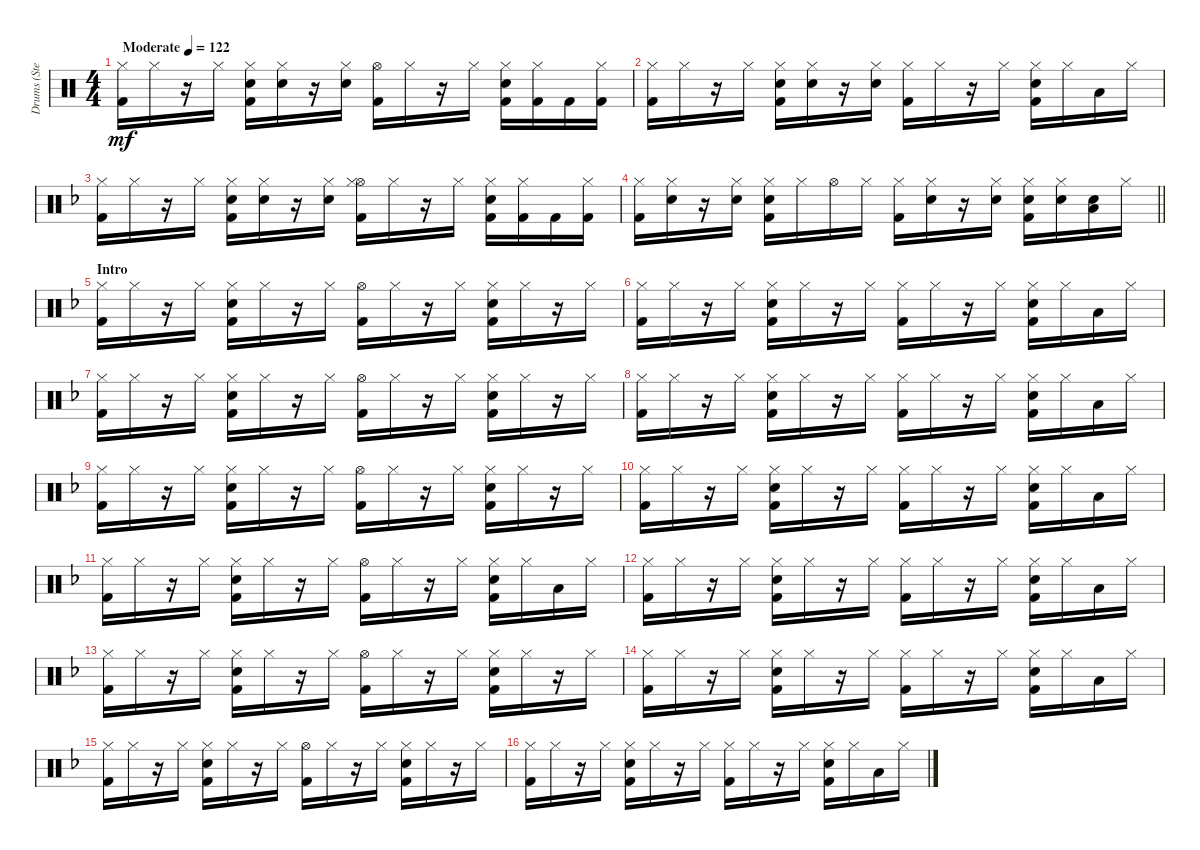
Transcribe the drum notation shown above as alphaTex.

\track ("Drums (Stephen Morris)" "Drums (Ste") {instrument percussion}
\staff {score}
\articulation defaults
\ts (4 4)
\tempo (122 "Moderate")
\clef neutral
\ks c
("Kick (hit) 2" "Hi-Hat (closed)").16{dy mf} "Hi-Hat (closed)".16 r.16 "Hi-Hat (closed)".16 ("Snare (hit) 2" "Kick (hit) 2" "Hi-Hat (closed)").16 ("Snare (hit) 2" "Hi-Hat (closed)").16 r.16 ("Hi-Hat (closed)" "Snare (hit) 2").16 ("Kick (hit) 2" "Hi-Hat (open)").16 "Hi-Hat (closed)".16 r.16 "Hi-Hat (closed)".16 ("Hi-Hat (closed)" "Snare (hit) 2" "Kick (hit) 2").16 ("Kick (hit) 2" "Hi-Hat (closed)").16 "Kick (hit) 2".16 ("Hi-Hat (closed)" "Kick (hit) 2").16 |
("Kick (hit) 2" "Hi-Hat (closed)").16 "Hi-Hat (closed)".16 r.16 "Hi-Hat (closed)".16 ("Hi-Hat (closed)" "Kick (hit) 2" "Snare (hit) 2").16 ("Snare (hit) 2" "Hi-Hat (closed)").16 r.16 ("Snare (hit) 2" "Hi-Hat (closed)").16 ("Hi-Hat (closed)" "Kick (hit) 2").16 "Hi-Hat (closed)".16 r.16 "Hi-Hat (closed)".16 ("Hi-Hat (closed)" "Snare (hit) 2" "Kick (hit) 2").16 "Hi-Hat (closed)".16 "Low Floor Tom (hit)".16 "Hi-Hat (closed)".16 |
\ks f
("Kick (hit) 2" "Hi-Hat (closed)").16 "Hi-Hat (closed)".16 r.16 "Hi-Hat (closed)".16 ("Hi-Hat (closed)" "Snare (hit) 2" "Kick (hit) 2").16 ("Snare (hit) 2" "Hi-Hat (closed)").16 r.16 ("Snare (hit) 2" "Hi-Hat (closed)").16 ("Hi-Hat (open)" "Kick (hit) 2" "Hi-Hat (closed)").16 "Hi-Hat (closed)".16 r.16 "Hi-Hat (closed)".16 ("Kick (hit) 2" "Snare (hit) 2" "Hi-Hat (closed)").16 ("Kick (hit) 2" "Hi-Hat (closed)").16 "Kick (hit) 2".16 ("Kick (hit) 2" "Hi-Hat (closed)").16 |
\barLineRight lightlight
("Hi-Hat (closed)" "Kick (hit) 2").16 ("Snare (hit) 2" "Hi-Hat (closed)").16 r.16 ("Snare (hit) 2" "Hi-Hat (closed)").16 ("Snare (hit) 2" "Kick (hit) 2" "Hi-Hat (closed)").16 "Hi-Hat (closed)".16 "Hi-Hat (open)".16 "Hi-Hat (closed)".16 ("Kick (hit) 2" "Hi-Hat (closed)").16 ("Hi-Hat (closed)" "Snare (hit) 2").16 r.16 ("Snare (hit) 2" "Hi-Hat (closed)").16 ("Kick (hit) 2" "Snare (hit) 2" "Hi-Hat (closed)").16 ("Snare (hit) 2" "Hi-Hat (closed)").16 ("Snare (hit) 2" "Low Floor Tom (hit)").16 "Hi-Hat (closed)".16 |
\section ("" "Intro")
("Hi-Hat (closed)" "Kick (hit) 2").16 "Hi-Hat (closed)".16 r.16 "Hi-Hat (closed)".16 ("Kick (hit) 2" "Snare (hit) 2" "Hi-Hat (closed)").16 "Hi-Hat (closed)".16 r.16 "Hi-Hat (closed)".16 ("Kick (hit) 2" "Hi-Hat (open)").16 "Hi-Hat (closed)".16 r.16 "Hi-Hat (closed)".16 ("Hi-Hat (closed)" "Snare (hit) 2" "Kick (hit) 2").16 "Hi-Hat (closed)".16 r.16 "Hi-Hat (closed)".16 |
("Kick (hit) 2" "Hi-Hat (closed)").16 "Hi-Hat (closed)".16 r.16 "Hi-Hat (closed)".16 ("Snare (hit) 2" "Kick (hit) 2" "Hi-Hat (closed)").16 "Hi-Hat (closed)".16 r.16 "Hi-Hat (closed)".16 ("Kick (hit) 2" "Hi-Hat (closed)").16 "Hi-Hat (closed)".16 r.16 "Hi-Hat (closed)".16 ("Hi-Hat (closed)" "Snare (hit) 2" "Kick (hit) 2").16 "Hi-Hat (closed)".16 "Low Floor Tom (hit)".16 "Hi-Hat (closed)".16 |
("Kick (hit) 2" "Hi-Hat (closed)").16 "Hi-Hat (closed)".16 r.16 "Hi-Hat (closed)".16 ("Hi-Hat (closed)" "Kick (hit) 2" "Snare (hit) 2").16 "Hi-Hat (closed)".16 r.16 "Hi-Hat (closed)".16 ("Hi-Hat (open)" "Kick (hit) 2").16 "Hi-Hat (closed)".16 r.16 "Hi-Hat (closed)".16 ("Hi-Hat (closed)" "Snare (hit) 2" "Kick (hit) 2").16 "Hi-Hat (closed)".16 r.16 "Hi-Hat (closed)".16 |
("Kick (hit) 2" "Hi-Hat (closed)").16 "Hi-Hat (closed)".16 r.16 "Hi-Hat (closed)".16 ("Kick (hit) 2" "Snare (hit) 2" "Hi-Hat (closed)").16 "Hi-Hat (closed)".16 r.16 "Hi-Hat (closed)".16 ("Kick (hit) 2" "Hi-Hat (closed)").16 "Hi-Hat (closed)".16 r.16 "Hi-Hat (closed)".16 ("Hi-Hat (closed)" "Kick (hit) 2" "Snare (hit) 2").16 "Hi-Hat (closed)".16 "Low Floor Tom (hit)".16 "Hi-Hat (closed)".16 |
("Kick (hit) 2" "Hi-Hat (closed)").16 "Hi-Hat (closed)".16 r.16 "Hi-Hat (closed)".16 ("Hi-Hat (closed)" "Snare (hit) 2" "Kick (hit) 2").16 "Hi-Hat (closed)".16 r.16 "Hi-Hat (closed)".16 ("Hi-Hat (open)" "Kick (hit) 2").16 "Hi-Hat (closed)".16 r.16 "Hi-Hat (closed)".16 ("Hi-Hat (closed)" "Kick (hit) 2" "Snare (hit) 2").16 "Hi-Hat (closed)".16 r.16 "Hi-Hat (closed)".16 |
("Kick (hit) 2" "Hi-Hat (closed)").16 "Hi-Hat (closed)".16 r.16 "Hi-Hat (closed)".16 ("Hi-Hat (closed)" "Snare (hit) 2" "Kick (hit) 2").16 "Hi-Hat (closed)".16 r.16 "Hi-Hat (closed)".16 ("Kick (hit) 2" "Hi-Hat (closed)").16 "Hi-Hat (closed)".16 r.16 "Hi-Hat (closed)".16 ("Hi-Hat (closed)" "Snare (hit) 2" "Kick (hit) 2").16 "Hi-Hat (closed)".16 "Low Floor Tom (hit)".16 "Hi-Hat (closed)".16 |
("Kick (hit) 2" "Hi-Hat (closed)").16 "Hi-Hat (closed)".16 r.16 "Hi-Hat (closed)".16 ("Hi-Hat (closed)" "Snare (hit) 2" "Kick (hit) 2").16 "Hi-Hat (closed)".16 r.16 "Hi-Hat (closed)".16 ("Hi-Hat (open)" "Kick (hit) 2").16 "Hi-Hat (closed)".16 r.16 "Hi-Hat (closed)".16 ("Hi-Hat (closed)" "Snare (hit) 2" "Kick (hit) 2").16 "Hi-Hat (closed)".16 "Low Floor Tom (hit)".16 "Hi-Hat (closed)".16 |
("Kick (hit) 2" "Hi-Hat (closed)").16 "Hi-Hat (closed)".16 r.16 "Hi-Hat (closed)".16 ("Kick (hit) 2" "Snare (hit) 2" "Hi-Hat (closed)").16 "Hi-Hat (closed)".16 r.16 "Hi-Hat (closed)".16 ("Hi-Hat (closed)" "Kick (hit) 2").16 "Hi-Hat (closed)".16 r.16 "Hi-Hat (closed)".16 ("Hi-Hat (closed)" "Kick (hit) 2" "Snare (hit) 2").16 "Hi-Hat (closed)".16 "Low Floor Tom (hit)".16 "Hi-Hat (closed)".16 |
("Kick (hit) 2" "Hi-Hat (closed)").16 "Hi-Hat (closed)".16 r.16 "Hi-Hat (closed)".16 ("Hi-Hat (closed)" "Snare (hit) 2" "Kick (hit) 2").16 "Hi-Hat (closed)".16 r.16 "Hi-Hat (closed)".16 ("Hi-Hat (open)" "Kick (hit) 2").16 "Hi-Hat (closed)".16 r.16 "Hi-Hat (closed)".16 ("Hi-Hat (closed)" "Snare (hit) 2" "Kick (hit) 2").16 "Hi-Hat (closed)".16 r.16 "Hi-Hat (closed)".16 |
("Kick (hit) 2" "Hi-Hat (closed)").16 "Hi-Hat (closed)".16 r.16 "Hi-Hat (closed)".16 ("Kick (hit) 2" "Snare (hit) 2" "Hi-Hat (closed)").16 "Hi-Hat (closed)".16 r.16 "Hi-Hat (closed)".16 ("Hi-Hat (closed)" "Kick (hit) 2").16 "Hi-Hat (closed)".16 r.16 "Hi-Hat (closed)".16 ("Hi-Hat (closed)" "Snare (hit) 2" "Kick (hit) 2").16 "Hi-Hat (closed)".16 "Low Floor Tom (hit)".16 "Hi-Hat (closed)".16 |
("Kick (hit) 2" "Hi-Hat (closed)").16 "Hi-Hat (closed)".16 r.16 "Hi-Hat (closed)".16 ("Hi-Hat (closed)" "Snare (hit) 2" "Kick (hit) 2").16 "Hi-Hat (closed)".16 r.16 "Hi-Hat (closed)".16 ("Hi-Hat (open)" "Kick (hit) 2").16 "Hi-Hat (closed)".16 r.16 "Hi-Hat (closed)".16 ("Hi-Hat (closed)" "Snare (hit) 2" "Kick (hit) 2").16 "Hi-Hat (closed)".16 r.16 "Hi-Hat (closed)".16 |
("Kick (hit) 2" "Hi-Hat (closed)").16 "Hi-Hat (closed)".16 r.16 "Hi-Hat (closed)".16 ("Kick (hit) 2" "Snare (hit) 2" "Hi-Hat (closed)").16 "Hi-Hat (closed)".16 r.16 "Hi-Hat (closed)".16 ("Hi-Hat (closed)" "Kick (hit) 2").16 "Hi-Hat (closed)".16 r.16 "Hi-Hat (closed)".16 ("Hi-Hat (closed)" "Snare (hit) 2" "Kick (hit) 2").16 "Hi-Hat (closed)".16 "Low Floor Tom (hit)".16 "Hi-Hat (closed)".16
